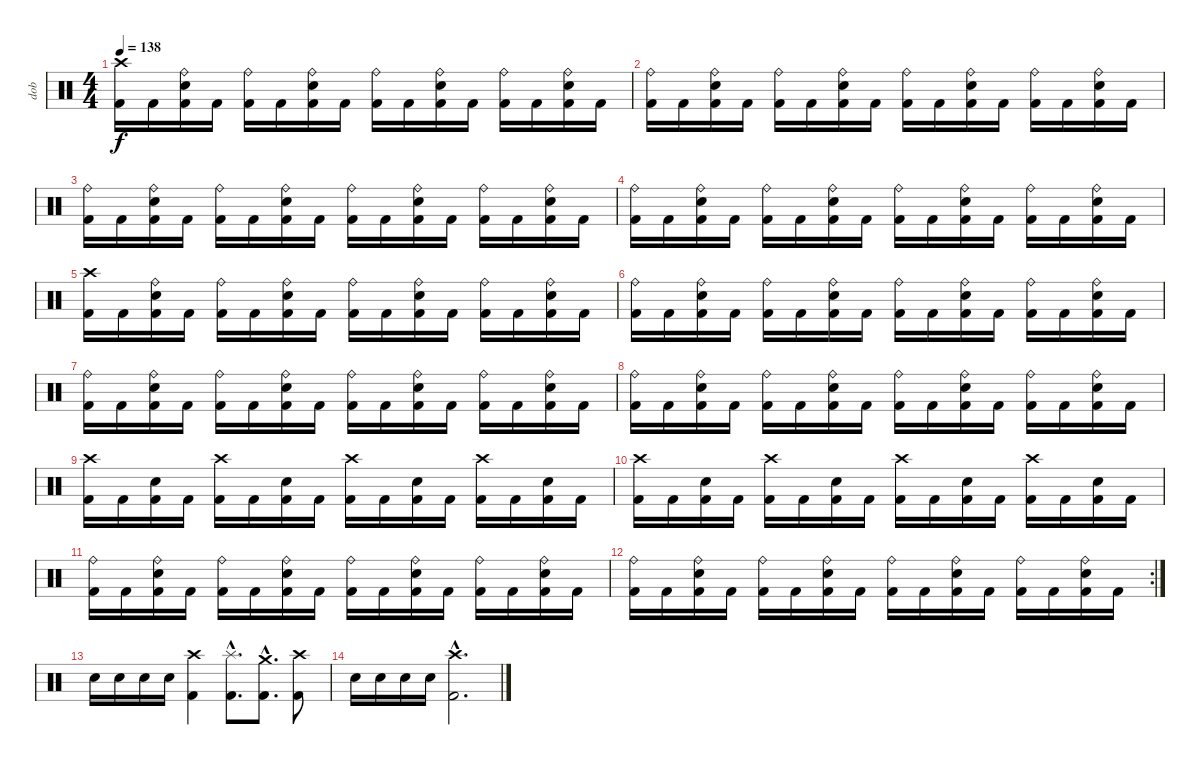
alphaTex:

\track ("dob" "dob") {instrument percussion}
\staff {score}
\articulation defaults
\ts (4 4)
\tempo 138
\clef neutral
\ks c
("Crash high (hit)" "Kick (hit) 2").16{dy f} "Kick (hit) 2".16 ("Ride (bell)" "Electric Snare (hit)" "Kick (hit) 2").16 "Kick (hit) 2".16 ("Ride (bell)" "Kick (hit) 2").16 "Kick (hit) 2".16 ("Ride (bell)" "Electric Snare (hit)" "Kick (hit) 2").16 "Kick (hit) 2".16 ("Ride (bell)" "Kick (hit) 2").16 "Kick (hit) 2".16 ("Ride (bell)" "Electric Snare (hit)" "Kick (hit) 2").16 "Kick (hit) 2".16 ("Ride (bell)" "Kick (hit) 2").16 "Kick (hit) 2".16 ("Ride (bell)" "Electric Snare (hit)" "Kick (hit) 2").16 "Kick (hit) 2".16 |
("Ride (bell)" "Kick (hit) 2").16 "Kick (hit) 2".16 ("Ride (bell)" "Electric Snare (hit)" "Kick (hit) 2").16 "Kick (hit) 2".16 ("Ride (bell)" "Kick (hit) 2").16 "Kick (hit) 2".16 ("Ride (bell)" "Electric Snare (hit)" "Kick (hit) 2").16 "Kick (hit) 2".16 ("Ride (bell)" "Kick (hit) 2").16 "Kick (hit) 2".16 ("Ride (bell)" "Electric Snare (hit)" "Kick (hit) 2").16 "Kick (hit) 2".16 ("Ride (bell)" "Kick (hit) 2").16 "Kick (hit) 2".16 ("Ride (bell)" "Electric Snare (hit)" "Kick (hit) 2").16 "Kick (hit) 2".16 |
("Ride (bell)" "Kick (hit) 2").16 "Kick (hit) 2".16 ("Ride (bell)" "Electric Snare (hit)" "Kick (hit) 2").16 "Kick (hit) 2".16 ("Ride (bell)" "Kick (hit) 2").16 "Kick (hit) 2".16 ("Ride (bell)" "Electric Snare (hit)" "Kick (hit) 2").16 "Kick (hit) 2".16 ("Ride (bell)" "Kick (hit) 2").16 "Kick (hit) 2".16 ("Ride (bell)" "Electric Snare (hit)" "Kick (hit) 2").16 "Kick (hit) 2".16 ("Ride (bell)" "Kick (hit) 2").16 "Kick (hit) 2".16 ("Ride (bell)" "Electric Snare (hit)" "Kick (hit) 2").16 "Kick (hit) 2".16 |
("Ride (bell)" "Kick (hit) 2").16 "Kick (hit) 2".16 ("Ride (bell)" "Electric Snare (hit)" "Kick (hit) 2").16 "Kick (hit) 2".16 ("Ride (bell)" "Kick (hit) 2").16 "Kick (hit) 2".16 ("Ride (bell)" "Electric Snare (hit)" "Kick (hit) 2").16 "Kick (hit) 2".16 ("Ride (bell)" "Kick (hit) 2").16 "Kick (hit) 2".16 ("Ride (bell)" "Electric Snare (hit)" "Kick (hit) 2").16 "Kick (hit) 2".16 ("Ride (bell)" "Kick (hit) 2").16 "Kick (hit) 2".16 ("Ride (bell)" "Electric Snare (hit)" "Kick (hit) 2").16 "Kick (hit) 2".16 |
("Crash high (hit)" "Kick (hit) 2").16 "Kick (hit) 2".16 ("Ride (bell)" "Electric Snare (hit)" "Kick (hit) 2").16 "Kick (hit) 2".16 ("Ride (bell)" "Kick (hit) 2").16 "Kick (hit) 2".16 ("Ride (bell)" "Electric Snare (hit)" "Kick (hit) 2").16 "Kick (hit) 2".16 ("Ride (bell)" "Kick (hit) 2").16 "Kick (hit) 2".16 ("Ride (bell)" "Electric Snare (hit)" "Kick (hit) 2").16 "Kick (hit) 2".16 ("Ride (bell)" "Kick (hit) 2").16 "Kick (hit) 2".16 ("Ride (bell)" "Electric Snare (hit)" "Kick (hit) 2").16 "Kick (hit) 2".16 |
("Ride (bell)" "Kick (hit) 2").16 "Kick (hit) 2".16 ("Ride (bell)" "Electric Snare (hit)" "Kick (hit) 2").16 "Kick (hit) 2".16 ("Ride (bell)" "Kick (hit) 2").16 "Kick (hit) 2".16 ("Ride (bell)" "Electric Snare (hit)" "Kick (hit) 2").16 "Kick (hit) 2".16 ("Ride (bell)" "Kick (hit) 2").16 "Kick (hit) 2".16 ("Ride (bell)" "Electric Snare (hit)" "Kick (hit) 2").16 "Kick (hit) 2".16 ("Ride (bell)" "Kick (hit) 2").16 "Kick (hit) 2".16 ("Ride (bell)" "Electric Snare (hit)" "Kick (hit) 2").16 "Kick (hit) 2".16 |
("Ride (bell)" "Kick (hit) 2").16 "Kick (hit) 2".16 ("Ride (bell)" "Electric Snare (hit)" "Kick (hit) 2").16 "Kick (hit) 2".16 ("Ride (bell)" "Kick (hit) 2").16 "Kick (hit) 2".16 ("Ride (bell)" "Electric Snare (hit)" "Kick (hit) 2").16 "Kick (hit) 2".16 ("Ride (bell)" "Kick (hit) 2").16 "Kick (hit) 2".16 ("Ride (bell)" "Electric Snare (hit)" "Kick (hit) 2").16 "Kick (hit) 2".16 ("Ride (bell)" "Kick (hit) 2").16 "Kick (hit) 2".16 ("Ride (bell)" "Electric Snare (hit)" "Kick (hit) 2").16 "Kick (hit) 2".16 |
("Ride (bell)" "Kick (hit) 2").16 "Kick (hit) 2".16 ("Ride (bell)" "Electric Snare (hit)" "Kick (hit) 2").16 "Kick (hit) 2".16 ("Ride (bell)" "Kick (hit) 2").16 "Kick (hit) 2".16 ("Ride (bell)" "Electric Snare (hit)" "Kick (hit) 2").16 "Kick (hit) 2".16 ("Ride (bell)" "Kick (hit) 2").16 "Kick (hit) 2".16 ("Ride (bell)" "Electric Snare (hit)" "Kick (hit) 2").16 "Kick (hit) 2".16 ("Ride (bell)" "Kick (hit) 2").16 "Kick (hit) 2".16 ("Ride (bell)" "Electric Snare (hit)" "Kick (hit) 2").16 "Kick (hit) 2".16 |
("Crash high (hit)" "Kick (hit) 2").16 "Kick (hit) 2".16 ("Electric Snare (hit)" "Kick (hit) 2").16 "Kick (hit) 2".16 ("Crash high (hit)" "Kick (hit) 2").16 "Kick (hit) 2".16 ("Electric Snare (hit)" "Kick (hit) 2").16 "Kick (hit) 2".16 ("Crash high (hit)" "Kick (hit) 2").16 "Kick (hit) 2".16 ("Electric Snare (hit)" "Kick (hit) 2").16 "Kick (hit) 2".16 ("Crash high (hit)" "Kick (hit) 2").16 "Kick (hit) 2".16 ("Electric Snare (hit)" "Kick (hit) 2").16 "Kick (hit) 2".16 |
("Crash high (hit)" "Kick (hit) 2").16 "Kick (hit) 2".16 ("Electric Snare (hit)" "Kick (hit) 2").16 "Kick (hit) 2".16 ("Crash high (hit)" "Kick (hit) 2").16 "Kick (hit) 2".16 ("Electric Snare (hit)" "Kick (hit) 2").16 "Kick (hit) 2".16 ("Crash high (hit)" "Kick (hit) 2").16 "Kick (hit) 2".16 ("Electric Snare (hit)" "Kick (hit) 2").16 "Kick (hit) 2".16 ("Crash high (hit)" "Kick (hit) 2").16 "Kick (hit) 2".16 ("Electric Snare (hit)" "Kick (hit) 2").16 "Kick (hit) 2".16 |
("Ride (bell)" "Kick (hit) 2").16 "Kick (hit) 2".16 ("Ride (bell)" "Electric Snare (hit)" "Kick (hit) 2").16 "Kick (hit) 2".16 ("Ride (bell)" "Kick (hit) 2").16 "Kick (hit) 2".16 ("Ride (bell)" "Electric Snare (hit)" "Kick (hit) 2").16 "Kick (hit) 2".16 ("Ride (bell)" "Kick (hit) 2").16 "Kick (hit) 2".16 ("Ride (bell)" "Electric Snare (hit)" "Kick (hit) 2").16 "Kick (hit) 2".16 ("Ride (bell)" "Kick (hit) 2").16 "Kick (hit) 2".16 ("Ride (bell)" "Electric Snare (hit)" "Kick (hit) 2").16 "Kick (hit) 2".16 |
\rc 2
("Ride (bell)" "Kick (hit) 2").16 "Kick (hit) 2".16 ("Ride (bell)" "Electric Snare (hit)" "Kick (hit) 2").16 "Kick (hit) 2".16 ("Ride (bell)" "Kick (hit) 2").16 "Kick (hit) 2".16 ("Ride (bell)" "Electric Snare (hit)" "Kick (hit) 2").16 "Kick (hit) 2".16 ("Ride (bell)" "Kick (hit) 2").16 "Kick (hit) 2".16 ("Ride (bell)" "Electric Snare (hit)" "Kick (hit) 2").16 "Kick (hit) 2".16 ("Ride (bell)" "Kick (hit) 2").16 "Kick (hit) 2".16 ("Ride (bell)" "Electric Snare (hit)" "Kick (hit) 2").16 "Kick (hit) 2".16 |
"Electric Snare (hit)".16 "Electric Snare (hit)".16 "Electric Snare (hit)".16 "Electric Snare (hit)".16 ("Crash high (hit)" "Kick (hit) 2").4 ("Splash (hit)"{hac} "Kick (hit) 2"{hac}).8{d} ("Crash medium (hit)"{hac} "Kick (hit) 2"{hac}).8{d} ("Crash high (hit)" "Kick (hit) 2").8 |
"Electric Snare (hit)".16 "Electric Snare (hit)".16 "Electric Snare (hit)".16 "Electric Snare (hit)".16 ("Crash high (hit)"{hac} "Kick (hit) 2"{hac}).2{d}
